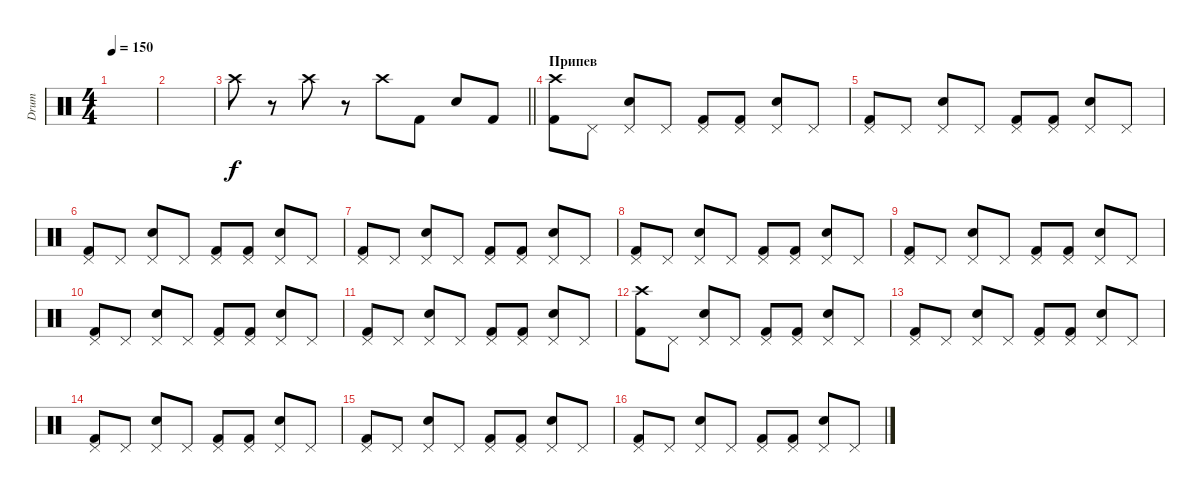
\track ("Drum" "Drum") {instrument percussion}
\staff {score}
\articulation defaults
\ts (4 4)
\tempo 150
\clef neutral
\ks c
|
|
\barLineRight lightlight "Crash high (hit)".8
r.8 "Crash high (hit)".8 r.8 "Crash high (hit)".8 "Kick (hit) 2".8 "Electric Snare (hit)".8 "Kick (hit) 2".8 |
\section ("" "Припев")
("Crash high (hit)" "Kick (hit) 2").8 "Pedal Hi-Hat (hit)".8 ("Pedal Hi-Hat (hit)" "Electric Snare (hit)").8 "Pedal Hi-Hat (hit)".8 ("Pedal Hi-Hat (hit)" "Kick (hit) 2").8 ("Pedal Hi-Hat (hit)" "Kick (hit) 2").8 ("Pedal Hi-Hat (hit)" "Electric Snare (hit)").8 "Pedal Hi-Hat (hit)".8 |
("Pedal Hi-Hat (hit)" "Kick (hit) 2").8 "Pedal Hi-Hat (hit)".8 ("Pedal Hi-Hat (hit)" "Electric Snare (hit)").8 "Pedal Hi-Hat (hit)".8 ("Pedal Hi-Hat (hit)" "Kick (hit) 2").8 ("Pedal Hi-Hat (hit)" "Kick (hit) 2").8 ("Pedal Hi-Hat (hit)" "Electric Snare (hit)").8 "Pedal Hi-Hat (hit)".8 |
("Pedal Hi-Hat (hit)" "Kick (hit) 2").8 "Pedal Hi-Hat (hit)".8 ("Pedal Hi-Hat (hit)" "Electric Snare (hit)").8 "Pedal Hi-Hat (hit)".8 ("Pedal Hi-Hat (hit)" "Kick (hit) 2").8 ("Pedal Hi-Hat (hit)" "Kick (hit) 2").8 ("Pedal Hi-Hat (hit)" "Electric Snare (hit)").8 "Pedal Hi-Hat (hit)".8 |
("Pedal Hi-Hat (hit)" "Kick (hit) 2").8 "Pedal Hi-Hat (hit)".8 ("Pedal Hi-Hat (hit)" "Electric Snare (hit)").8 "Pedal Hi-Hat (hit)".8 ("Pedal Hi-Hat (hit)" "Kick (hit) 2").8 ("Pedal Hi-Hat (hit)" "Kick (hit) 2").8 ("Pedal Hi-Hat (hit)" "Electric Snare (hit)").8 "Pedal Hi-Hat (hit)".8 |
("Pedal Hi-Hat (hit)" "Kick (hit) 2").8 "Pedal Hi-Hat (hit)".8 ("Pedal Hi-Hat (hit)" "Electric Snare (hit)").8 "Pedal Hi-Hat (hit)".8 ("Pedal Hi-Hat (hit)" "Kick (hit) 2").8 ("Pedal Hi-Hat (hit)" "Kick (hit) 2").8 ("Pedal Hi-Hat (hit)" "Electric Snare (hit)").8 "Pedal Hi-Hat (hit)".8 |
("Pedal Hi-Hat (hit)" "Kick (hit) 2").8 "Pedal Hi-Hat (hit)".8 ("Pedal Hi-Hat (hit)" "Electric Snare (hit)").8 "Pedal Hi-Hat (hit)".8 ("Pedal Hi-Hat (hit)" "Kick (hit) 2").8 ("Pedal Hi-Hat (hit)" "Kick (hit) 2").8 ("Pedal Hi-Hat (hit)" "Electric Snare (hit)").8 "Pedal Hi-Hat (hit)".8 |
("Pedal Hi-Hat (hit)" "Kick (hit) 2").8 "Pedal Hi-Hat (hit)".8 ("Pedal Hi-Hat (hit)" "Electric Snare (hit)").8 "Pedal Hi-Hat (hit)".8 ("Pedal Hi-Hat (hit)" "Kick (hit) 2").8 ("Pedal Hi-Hat (hit)" "Kick (hit) 2").8 ("Pedal Hi-Hat (hit)" "Electric Snare (hit)").8 "Pedal Hi-Hat (hit)".8 |
("Pedal Hi-Hat (hit)" "Kick (hit) 2").8 "Pedal Hi-Hat (hit)".8 ("Pedal Hi-Hat (hit)" "Electric Snare (hit)").8 "Pedal Hi-Hat (hit)".8 ("Pedal Hi-Hat (hit)" "Kick (hit) 2").8 ("Pedal Hi-Hat (hit)" "Kick (hit) 2").8 ("Pedal Hi-Hat (hit)" "Electric Snare (hit)").8 "Pedal Hi-Hat (hit)".8 |
("Crash high (hit)" "Kick (hit) 2").8 "Pedal Hi-Hat (hit)".8 ("Pedal Hi-Hat (hit)" "Electric Snare (hit)").8 "Pedal Hi-Hat (hit)".8 ("Pedal Hi-Hat (hit)" "Kick (hit) 2").8 ("Pedal Hi-Hat (hit)" "Kick (hit) 2").8 ("Pedal Hi-Hat (hit)" "Electric Snare (hit)").8 "Pedal Hi-Hat (hit)".8 |
("Pedal Hi-Hat (hit)" "Kick (hit) 2").8 "Pedal Hi-Hat (hit)".8 ("Pedal Hi-Hat (hit)" "Electric Snare (hit)").8 "Pedal Hi-Hat (hit)".8 ("Pedal Hi-Hat (hit)" "Kick (hit) 2").8 ("Pedal Hi-Hat (hit)" "Kick (hit) 2").8 ("Pedal Hi-Hat (hit)" "Electric Snare (hit)").8 "Pedal Hi-Hat (hit)".8 |
("Pedal Hi-Hat (hit)" "Kick (hit) 2").8 "Pedal Hi-Hat (hit)".8 ("Pedal Hi-Hat (hit)" "Electric Snare (hit)").8 "Pedal Hi-Hat (hit)".8 ("Pedal Hi-Hat (hit)" "Kick (hit) 2").8 ("Pedal Hi-Hat (hit)" "Kick (hit) 2").8 ("Pedal Hi-Hat (hit)" "Electric Snare (hit)").8 "Pedal Hi-Hat (hit)".8 |
("Pedal Hi-Hat (hit)" "Kick (hit) 2").8 "Pedal Hi-Hat (hit)".8 ("Pedal Hi-Hat (hit)" "Electric Snare (hit)").8 "Pedal Hi-Hat (hit)".8 ("Pedal Hi-Hat (hit)" "Kick (hit) 2").8 ("Pedal Hi-Hat (hit)" "Kick (hit) 2").8 ("Pedal Hi-Hat (hit)" "Electric Snare (hit)").8 "Pedal Hi-Hat (hit)".8 |
("Pedal Hi-Hat (hit)" "Kick (hit) 2").8 "Pedal Hi-Hat (hit)".8 ("Pedal Hi-Hat (hit)" "Electric Snare (hit)").8 "Pedal Hi-Hat (hit)".8 ("Pedal Hi-Hat (hit)" "Kick (hit) 2").8 ("Pedal Hi-Hat (hit)" "Kick (hit) 2").8 ("Pedal Hi-Hat (hit)" "Electric Snare (hit)").8 "Pedal Hi-Hat (hit)".8
